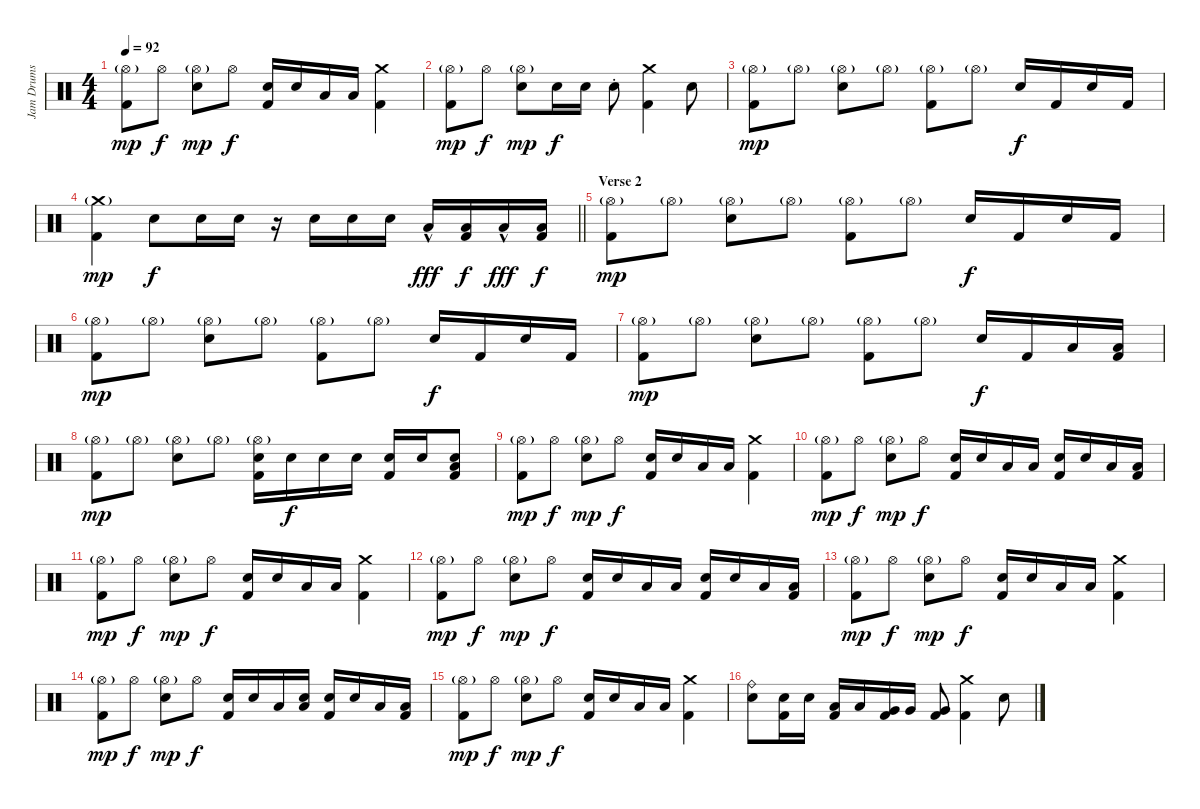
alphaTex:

\track ("Jam Drums" "Jam Drums") {instrument percussion}
\staff {score}
\articulation defaults
\ts (4 4)
\tempo 92
\clef neutral
\ks c
("Hi-Hat (open)"{g} "Kick (hit) 2").8{dy mp} "Hi-Hat (open)".8{dy f} ("Hi-Hat (open)"{g} "Snare (hit) 2").8{dy mp} "Hi-Hat (open)".8{dy f} ("Snare (hit) 2" "Kick (hit) 2").16 "Snare (hit) 2".16 "Low Tom (hit)".16 "Low Tom (hit)".16 ("Crash medium (hit)" "Kick (hit) 2").4 |
("Hi-Hat (open)"{g} "Kick (hit) 2").8{dy mp} "Hi-Hat (open)".8{dy f} ("Hi-Hat (open)"{g} "Snare (hit) 2").8{dy mp} "Snare (hit) 2".16{dy f} "Snare (hit) 2".16 "Snare (hit) 2"{st}.8 ("Crash medium (hit)" "Kick (hit) 2").4 "Snare (hit) 2".8 |
("Hi-Hat (open)"{g} "Kick (hit) 2").8{dy mp} "Hi-Hat (open)"{g}.8 ("Hi-Hat (open)"{g} "Snare (hit) 2").8 "Hi-Hat (open)"{g}.8 ("Hi-Hat (open)"{g} "Kick (hit) 2").8 "Hi-Hat (open)"{g}.8 "Snare (hit) 2".16{dy f} "Kick (hit) 2".16 "Snare (hit) 2".16 "Kick (hit) 2".16 |
\barLineRight lightlight
("Crash medium (hit)"{g} "Kick (hit) 2").4{dy mp} "Snare (hit) 2".8{dy f} "Snare (hit) 2".16 "Snare (hit) 2".16 r.16 "Snare (hit) 2".16 "Snare (hit) 2".16 "Snare (hit) 2".16 "Low Tom (hit)"{hac}.16{dy fff} ("Low Tom (hit)" "Kick (hit) 2").16{dy f} "Low Tom (hit)"{hac}.16{dy fff} ("Low Tom (hit)" "Kick (hit) 2").16{dy f} |
\section ("" "Verse 2")
("Hi-Hat (open)"{g} "Kick (hit) 2").8{dy mp} "Hi-Hat (open)"{g}.8 ("Hi-Hat (open)"{g} "Snare (hit) 2").8 "Hi-Hat (open)"{g}.8 ("Hi-Hat (open)"{g} "Kick (hit) 2").8 "Hi-Hat (open)"{g}.8 "Snare (hit) 2".16{dy f} "Kick (hit) 2".16 "Snare (hit) 2".16 "Kick (hit) 2".16 |
("Hi-Hat (open)"{g} "Kick (hit) 2").8{dy mp} "Hi-Hat (open)"{g}.8 ("Hi-Hat (open)"{g} "Snare (hit) 2").8 "Hi-Hat (open)"{g}.8 ("Hi-Hat (open)"{g} "Kick (hit) 2").8 "Hi-Hat (open)"{g}.8 "Snare (hit) 2".16{dy f} "Kick (hit) 2".16 "Snare (hit) 2".16 "Kick (hit) 2".16 |
("Hi-Hat (open)"{g} "Kick (hit) 2").8{dy mp} "Hi-Hat (open)"{g}.8 ("Hi-Hat (open)"{g} "Snare (hit) 2").8 "Hi-Hat (open)"{g}.8 ("Hi-Hat (open)"{g} "Kick (hit) 2").8 "Hi-Hat (open)"{g}.8 "Snare (hit) 2".16{dy f} "Kick (hit) 2".16 "Low Tom (hit)".16 ("Low Tom (hit)" "Kick (hit) 2").16 |
("Hi-Hat (open)"{g} "Kick (hit) 2").8{dy mp} "Hi-Hat (open)"{g}.8 ("Hi-Hat (open)"{g} "Snare (hit) 2").8 "Hi-Hat (open)"{g}.8 ("Hi-Hat (open)"{g} "Snare (hit) 2" "Kick (hit) 2").16 "Snare (hit) 2".16{dy f} "Snare (hit) 2".16 "Snare (hit) 2".16 ("Snare (hit) 2" "Kick (hit) 2").16 "Snare (hit) 2".16 ("Low Tom (hit)" "Snare (hit) 2" "Kick (hit) 2").8 |
("Hi-Hat (open)"{g} "Kick (hit) 2").8{dy mp} "Hi-Hat (open)".8{dy f} ("Hi-Hat (open)"{g} "Snare (hit) 2").8{dy mp} "Hi-Hat (open)".8{dy f} ("Snare (hit) 2" "Kick (hit) 2").16 "Snare (hit) 2".16 "Low Tom (hit)".16 "Low Tom (hit)".16 ("Crash medium (hit)" "Kick (hit) 2").4 |
("Hi-Hat (open)"{g} "Kick (hit) 2").8{dy mp} "Hi-Hat (open)".8{dy f} ("Hi-Hat (open)"{g} "Snare (hit) 2").8{dy mp} "Hi-Hat (open)".8{dy f} ("Snare (hit) 2" "Kick (hit) 2").16 "Snare (hit) 2".16 "Low Tom (hit)".16 "Low Tom (hit)".16 ("Snare (hit) 2" "Kick (hit) 2").16 "Snare (hit) 2".16 "Low Tom (hit)".16 ("Low Tom (hit)" "Kick (hit) 2").16 |
("Hi-Hat (open)"{g} "Kick (hit) 2").8{dy mp} "Hi-Hat (open)".8{dy f} ("Hi-Hat (open)"{g} "Snare (hit) 2").8{dy mp} "Hi-Hat (open)".8{dy f} ("Snare (hit) 2" "Kick (hit) 2").16 "Snare (hit) 2".16 "Low Tom (hit)".16 "Low Tom (hit)".16 ("Crash medium (hit)" "Kick (hit) 2").4 |
("Hi-Hat (open)"{g} "Kick (hit) 2").8{dy mp} "Hi-Hat (open)".8{dy f} ("Hi-Hat (open)"{g} "Snare (hit) 2").8{dy mp} "Hi-Hat (open)".8{dy f} ("Snare (hit) 2" "Kick (hit) 2").16 "Snare (hit) 2".16 "Low Tom (hit)".16 "Low Tom (hit)".16 ("Snare (hit) 2" "Kick (hit) 2").16 "Snare (hit) 2".16 "Low Tom (hit)".16 ("Low Tom (hit)" "Kick (hit) 2").16 |
("Hi-Hat (open)"{g} "Kick (hit) 2").8{dy mp} "Hi-Hat (open)".8{dy f} ("Hi-Hat (open)"{g} "Snare (hit) 2").8{dy mp} "Hi-Hat (open)".8{dy f} ("Snare (hit) 2" "Kick (hit) 2").16 "Snare (hit) 2".16 "Low Tom (hit)".16 "Low Tom (hit)".16 ("Crash medium (hit)" "Kick (hit) 2").4 |
("Hi-Hat (open)"{g} "Kick (hit) 2").8{dy mp} "Hi-Hat (open)".8{dy f} ("Hi-Hat (open)"{g} "Snare (hit) 2").8{dy mp} "Hi-Hat (open)".8{dy f} ("Snare (hit) 2" "Kick (hit) 2").16 "Snare (hit) 2".16 "Low Tom (hit)".16 ("Low Tom (hit)" "Snare (hit) 2").16 ("Snare (hit) 2" "Kick (hit) 2").16 "Snare (hit) 2".16 "Low Tom (hit)".16 ("Low Tom (hit)" "Kick (hit) 2").16 |
("Hi-Hat (open)"{g} "Kick (hit) 2").8{dy mp} "Hi-Hat (open)".8{dy f} ("Hi-Hat (open)"{g} "Snare (hit) 2").8{dy mp} "Hi-Hat (open)".8{dy f} ("Snare (hit) 2" "Kick (hit) 2").16 "Snare (hit) 2".16 "Low Tom (hit)".16 "Low Tom (hit)".16 ("Crash medium (hit)" "Kick (hit) 2").4 |
("Ride (bell)" "Snare (hit) 2").8 ("Snare (hit) 2" "Kick (hit) 2").16 "Snare (hit) 2".16 ("Low Tom (hit)" "Kick (hit) 2").16 "Low Tom (hit)".16 ("Very Low Tom (hit)" "Kick (hit) 2").16 "Very Low Tom (hit)".16 ("Very Low Tom (hit)" "Kick (hit) 2").8 ("Crash medium (hit)" "Kick (hit) 2").4 "Snare (hit) 2".8
